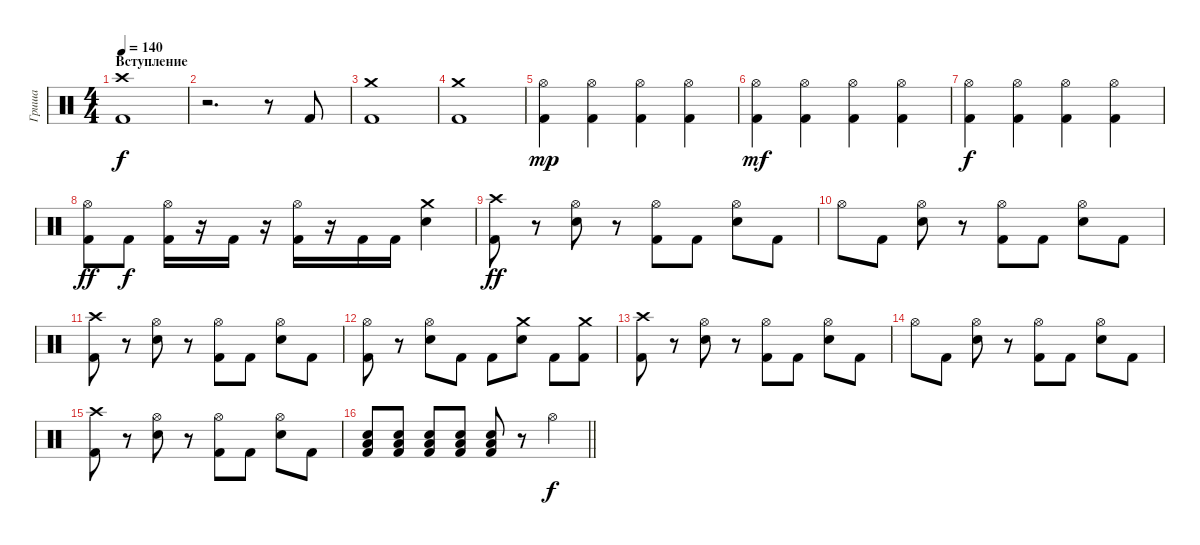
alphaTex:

\track ("Гриша" "Гриша") {instrument percussion}
\staff {score}
\articulation defaults
\ts (4 4)
\section ("" "Вступление")
\tempo 140
\clef neutral
\ks c
("Crash high (hit)" "Kick (hit) 2").1{dy f} |
r.2{d} r.8 "Kick (hit) 2".8 |
("Kick (hit) 2" "Crash medium (hit)").1 |
("Crash medium (hit)" "Kick (hit) 2").1 |
("Hi-Hat (open)" "Kick (hit) 2").4{dy mp} ("Hi-Hat (open)" "Kick (hit) 2").4 ("Hi-Hat (open)" "Kick (hit) 2").4 ("Hi-Hat (open)" "Kick (hit) 2").4 |
("Hi-Hat (open)" "Kick (hit) 2").4{dy mf} ("Hi-Hat (open)" "Kick (hit) 2").4 ("Hi-Hat (open)" "Kick (hit) 2").4 ("Hi-Hat (open)" "Kick (hit) 2").4 |
("Hi-Hat (open)" "Kick (hit) 2").4{dy f} ("Hi-Hat (open)" "Kick (hit) 2").4 ("Hi-Hat (open)" "Kick (hit) 2").4 ("Hi-Hat (open)" "Kick (hit) 2").4 |
("Hi-Hat (open)" "Kick (hit) 2").8{dy ff} "Kick (hit) 2".8{dy f} ("Hi-Hat (open)" "Kick (hit) 2").16 r.16 "Kick (hit) 2".16 r.16 ("Hi-Hat (open)" "Kick (hit) 2").16 r.16 "Kick (hit) 2".16 "Kick (hit) 2".16 ("Crash medium (hit)" "Electric Snare (hit)").4 |
("Crash high (hit)" "Kick (hit) 2").8{dy ff} r.8 ("Hi-Hat (open)" "Electric Snare (hit)").8 r.8 ("Hi-Hat (open)" "Kick (hit) 2").8 "Kick (hit) 2".8 ("Hi-Hat (open)" "Electric Snare (hit)").8 "Kick (hit) 2".8 |
"Hi-Hat (open)".8 "Kick (hit) 2".8 ("Hi-Hat (open)" "Electric Snare (hit)").8 r.8 ("Hi-Hat (open)" "Kick (hit) 2").8 "Kick (hit) 2".8 ("Hi-Hat (open)" "Electric Snare (hit)").8 "Kick (hit) 2".8 |
("Crash high (hit)" "Kick (hit) 2").8 r.8 ("Hi-Hat (open)" "Electric Snare (hit)").8 r.8 ("Hi-Hat (open)" "Kick (hit) 2").8 "Kick (hit) 2".8 ("Hi-Hat (open)" "Electric Snare (hit)").8 "Kick (hit) 2".8 |
("Hi-Hat (open)" "Kick (hit) 2").8 r.8 ("Hi-Hat (open)" "Electric Snare (hit)").8 "Kick (hit) 2".8 "Kick (hit) 2".8 ("Crash medium (hit)" "Electric Snare (hit)").8 "Kick (hit) 2".8 ("Crash medium (hit)" "Kick (hit) 2").8 |
("Crash high (hit)" "Kick (hit) 2").8 r.8 ("Hi-Hat (open)" "Electric Snare (hit)").8 r.8 ("Hi-Hat (open)" "Kick (hit) 2").8 "Kick (hit) 2".8 ("Hi-Hat (open)" "Electric Snare (hit)").8 "Kick (hit) 2".8 |
"Hi-Hat (open)".8 "Kick (hit) 2".8 ("Hi-Hat (open)" "Electric Snare (hit)").8 r.8 ("Hi-Hat (open)" "Kick (hit) 2").8 "Kick (hit) 2".8 ("Hi-Hat (open)" "Electric Snare (hit)").8 "Kick (hit) 2".8 |
("Crash high (hit)" "Kick (hit) 2").8 r.8 ("Hi-Hat (open)" "Electric Snare (hit)").8 r.8 ("Hi-Hat (open)" "Kick (hit) 2").8 "Kick (hit) 2".8 ("Hi-Hat (open)" "Electric Snare (hit)").8 "Kick (hit) 2".8 |
\barLineRight lightlight
("Kick (hit) 2" "Electric Snare (hit)" "Low Tom (hit)").8 ("Kick (hit) 2" "Electric Snare (hit)" "Low Tom (hit)").8 ("Kick (hit) 2" "Electric Snare (hit)" "Low Tom (hit)").8 ("Kick (hit) 2" "Electric Snare (hit)" "Low Tom (hit)").8 ("Kick (hit) 2" "Electric Snare (hit)" "Low Tom (hit)").8 r.8 "Hi-Hat (open)".4{dy f}
